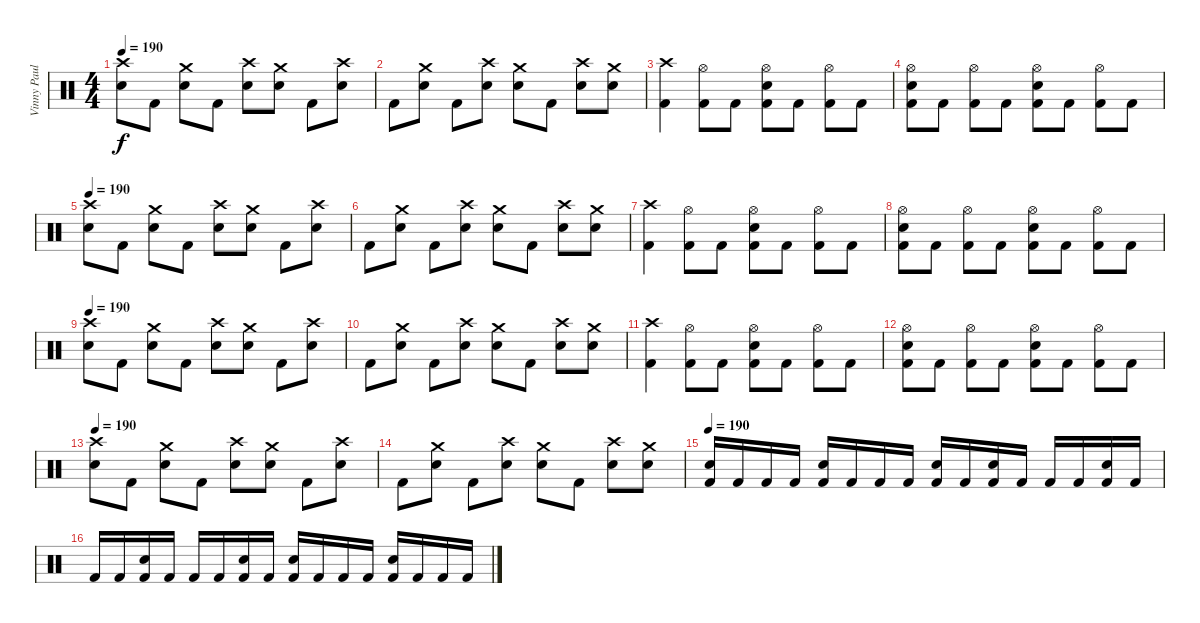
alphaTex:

\track ("Vinny Paul" "Vinny Paul") {instrument percussion}
\staff {score}
\articulation defaults
\ts (4 4)
\tempo 190
\clef neutral
\ks c
("Crash high (hit)" "Electric Snare (hit)").8{dy f} "Kick (hit) 2".8 ("Crash medium (hit)" "Electric Snare (hit)").8 "Kick (hit) 2".8 ("Crash high (hit)" "Electric Snare (hit)").8 ("Crash medium (hit)" "Electric Snare (hit)").8 "Kick (hit) 2".8 ("Crash high (hit)" "Electric Snare (hit)").8 |
"Kick (hit) 2".8 ("Crash medium (hit)" "Electric Snare (hit)").8 "Kick (hit) 2".8 ("Crash high (hit)" "Electric Snare (hit)").8 ("Crash medium (hit)" "Electric Snare (hit)").8 "Kick (hit) 2".8 ("Crash high (hit)" "Electric Snare (hit)").8 ("Crash medium (hit)" "Electric Snare (hit)").8 |
("Crash high (hit)" "Kick (hit) 2").4 ("Hi-Hat (open)" "Kick (hit) 2").8 "Kick (hit) 2".8 ("Hi-Hat (open)" "Electric Snare (hit)" "Kick (hit) 2").8 "Kick (hit) 2".8 ("Hi-Hat (open)" "Kick (hit) 2").8 "Kick (hit) 2".8 |
("Hi-Hat (open)" "Electric Snare (hit)" "Kick (hit) 2").8 "Kick (hit) 2".8 ("Hi-Hat (open)" "Kick (hit) 2").8 "Kick (hit) 2".8 ("Hi-Hat (open)" "Electric Snare (hit)" "Kick (hit) 2").8 "Kick (hit) 2".8 ("Hi-Hat (open)" "Kick (hit) 2").8 "Kick (hit) 2".8 |
\tempo 190
("Crash high (hit)" "Electric Snare (hit)").8 "Kick (hit) 2".8 ("Crash medium (hit)" "Electric Snare (hit)").8 "Kick (hit) 2".8 ("Crash high (hit)" "Electric Snare (hit)").8 ("Crash medium (hit)" "Electric Snare (hit)").8 "Kick (hit) 2".8 ("Crash high (hit)" "Electric Snare (hit)").8 |
"Kick (hit) 2".8 ("Crash medium (hit)" "Electric Snare (hit)").8 "Kick (hit) 2".8 ("Crash high (hit)" "Electric Snare (hit)").8 ("Crash medium (hit)" "Electric Snare (hit)").8 "Kick (hit) 2".8 ("Crash high (hit)" "Electric Snare (hit)").8 ("Crash medium (hit)" "Electric Snare (hit)").8 |
("Crash high (hit)" "Kick (hit) 2").4 ("Hi-Hat (open)" "Kick (hit) 2").8 "Kick (hit) 2".8 ("Hi-Hat (open)" "Electric Snare (hit)" "Kick (hit) 2").8 "Kick (hit) 2".8 ("Hi-Hat (open)" "Kick (hit) 2").8 "Kick (hit) 2".8 |
("Hi-Hat (open)" "Electric Snare (hit)" "Kick (hit) 2").8 "Kick (hit) 2".8 ("Hi-Hat (open)" "Kick (hit) 2").8 "Kick (hit) 2".8 ("Hi-Hat (open)" "Electric Snare (hit)" "Kick (hit) 2").8 "Kick (hit) 2".8 ("Hi-Hat (open)" "Kick (hit) 2").8 "Kick (hit) 2".8 |
\tempo 190
("Crash high (hit)" "Electric Snare (hit)").8 "Kick (hit) 2".8 ("Crash medium (hit)" "Electric Snare (hit)").8 "Kick (hit) 2".8 ("Crash high (hit)" "Electric Snare (hit)").8 ("Crash medium (hit)" "Electric Snare (hit)").8 "Kick (hit) 2".8 ("Crash high (hit)" "Electric Snare (hit)").8 |
"Kick (hit) 2".8 ("Crash medium (hit)" "Electric Snare (hit)").8 "Kick (hit) 2".8 ("Crash high (hit)" "Electric Snare (hit)").8 ("Crash medium (hit)" "Electric Snare (hit)").8 "Kick (hit) 2".8 ("Crash high (hit)" "Electric Snare (hit)").8 ("Crash medium (hit)" "Electric Snare (hit)").8 |
("Crash high (hit)" "Kick (hit) 2").4 ("Hi-Hat (open)" "Kick (hit) 2").8 "Kick (hit) 2".8 ("Hi-Hat (open)" "Electric Snare (hit)" "Kick (hit) 2").8 "Kick (hit) 2".8 ("Hi-Hat (open)" "Kick (hit) 2").8 "Kick (hit) 2".8 |
("Hi-Hat (open)" "Electric Snare (hit)" "Kick (hit) 2").8 "Kick (hit) 2".8 ("Hi-Hat (open)" "Kick (hit) 2").8 "Kick (hit) 2".8 ("Hi-Hat (open)" "Electric Snare (hit)" "Kick (hit) 2").8 "Kick (hit) 2".8 ("Hi-Hat (open)" "Kick (hit) 2").8 "Kick (hit) 2".8 |
\tempo 190
("Crash high (hit)" "Electric Snare (hit)").8 "Kick (hit) 2".8 ("Crash medium (hit)" "Electric Snare (hit)").8 "Kick (hit) 2".8 ("Crash high (hit)" "Electric Snare (hit)").8 ("Crash medium (hit)" "Electric Snare (hit)").8 "Kick (hit) 2".8 ("Crash high (hit)" "Electric Snare (hit)").8 |
"Kick (hit) 2".8 ("Crash medium (hit)" "Electric Snare (hit)").8 "Kick (hit) 2".8 ("Crash high (hit)" "Electric Snare (hit)").8 ("Crash medium (hit)" "Electric Snare (hit)").8 "Kick (hit) 2".8 ("Crash high (hit)" "Electric Snare (hit)").8 ("Crash medium (hit)" "Electric Snare (hit)").8 |
\tempo 190
("Electric Snare (hit)" "Kick (hit) 2").16 "Kick (hit) 2".16 "Kick (hit) 2".16 "Kick (hit) 2".16 ("Electric Snare (hit)" "Kick (hit) 2").16 "Kick (hit) 2".16 "Kick (hit) 2".16 "Kick (hit) 2".16 ("Electric Snare (hit)" "Kick (hit) 2").16 "Kick (hit) 2".16 ("Electric Snare (hit)" "Kick (hit) 2").16 "Kick (hit) 2".16 "Kick (hit) 2".16 "Kick (hit) 2".16 ("Electric Snare (hit)" "Kick (hit) 2").16 "Kick (hit) 2".16 |
"Kick (hit) 2".16 "Kick (hit) 2".16 ("Electric Snare (hit)" "Kick (hit) 2").16 "Kick (hit) 2".16 "Kick (hit) 2".16 "Kick (hit) 2".16 ("Electric Snare (hit)" "Kick (hit) 2").16 "Kick (hit) 2".16 ("Electric Snare (hit)" "Kick (hit) 2").16 "Kick (hit) 2".16 "Kick (hit) 2".16 "Kick (hit) 2".16 ("Electric Snare (hit)" "Kick (hit) 2").16 "Kick (hit) 2".16 "Kick (hit) 2".16 "Kick (hit) 2".16
